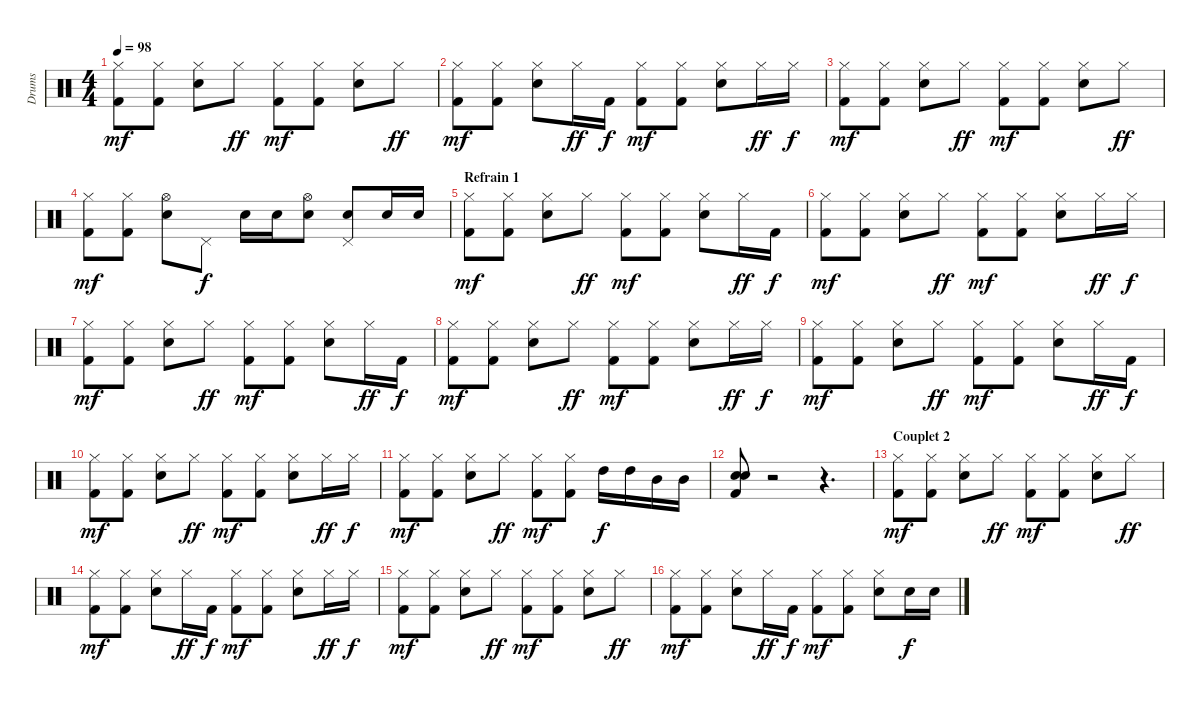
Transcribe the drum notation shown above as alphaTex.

\track ("Drums" "Drums") {instrument percussion}
\staff {score}
\articulation defaults
\ts (4 4)
\tempo 98
\clef neutral
\ks c
("Hi-Hat (closed)" "Kick (hit) 2").8{dy mf} ("Hi-Hat (closed)" "Kick (hit) 2").8 ("Hi-Hat (closed)" "Snare (hit) 2").8 "Hi-Hat (closed)".8{dy ff} ("Hi-Hat (closed)" "Kick (hit) 2").8{dy mf} ("Hi-Hat (closed)" "Kick (hit) 2").8 ("Hi-Hat (closed)" "Snare (hit) 2").8 "Hi-Hat (closed)".8{dy ff} |
("Hi-Hat (closed)" "Kick (hit) 2").8{dy mf} ("Hi-Hat (closed)" "Kick (hit) 2").8 ("Hi-Hat (closed)" "Snare (hit) 2").8 "Hi-Hat (closed)".16{dy ff} "Kick (hit) 2".16{dy f} ("Hi-Hat (closed)" "Kick (hit) 2").8{dy mf} ("Hi-Hat (closed)" "Kick (hit) 2").8 ("Hi-Hat (closed)" "Snare (hit) 2").8 "Hi-Hat (closed)".16{dy ff} "Hi-Hat (closed)".16{dy f} |
("Hi-Hat (closed)" "Kick (hit) 2").8{dy mf} ("Hi-Hat (closed)" "Kick (hit) 2").8 ("Hi-Hat (closed)" "Snare (hit) 2").8 "Hi-Hat (closed)".8{dy ff} ("Hi-Hat (closed)" "Kick (hit) 2").8{dy mf} ("Hi-Hat (closed)" "Kick (hit) 2").8 ("Hi-Hat (closed)" "Snare (hit) 2").8 "Hi-Hat (closed)".8{dy ff} |
("Hi-Hat (closed)" "Kick (hit) 2").8{dy mf} ("Hi-Hat (closed)" "Kick (hit) 2").8 ("Hi-Hat (open)" "Snare (hit) 2").8 "Pedal Hi-Hat (hit)".8{dy f} "Snare (hit) 2".16 "Snare (hit) 2".16 ("Hi-Hat (open)" "Snare (hit) 2").8 ("Snare (hit) 2" "Pedal Hi-Hat (hit)").8 "Snare (hit) 2".16 "Snare (hit) 2".16 |
\section ("" "Refrain 1")
("Hi-Hat (closed)" "Kick (hit) 2").8{dy mf} ("Hi-Hat (closed)" "Kick (hit) 2").8 ("Hi-Hat (closed)" "Snare (hit) 2").8 "Hi-Hat (closed)".8{dy ff} ("Hi-Hat (closed)" "Kick (hit) 2").8{dy mf} ("Hi-Hat (closed)" "Kick (hit) 2").8 ("Hi-Hat (closed)" "Snare (hit) 2").8 "Hi-Hat (closed)".16{dy ff} "Kick (hit) 2".16{dy f} |
("Hi-Hat (closed)" "Kick (hit) 2").8{dy mf} ("Hi-Hat (closed)" "Kick (hit) 2").8 ("Hi-Hat (closed)" "Snare (hit) 2").8 "Hi-Hat (closed)".8{dy ff} ("Hi-Hat (closed)" "Kick (hit) 2").8{dy mf} ("Hi-Hat (closed)" "Kick (hit) 2").8 ("Hi-Hat (closed)" "Snare (hit) 2").8 "Hi-Hat (closed)".16{dy ff} "Hi-Hat (closed)".16{dy f} |
("Hi-Hat (closed)" "Kick (hit) 2").8{dy mf} ("Hi-Hat (closed)" "Kick (hit) 2").8 ("Hi-Hat (closed)" "Snare (hit) 2").8 "Hi-Hat (closed)".8{dy ff} ("Hi-Hat (closed)" "Kick (hit) 2").8{dy mf} ("Hi-Hat (closed)" "Kick (hit) 2").8 ("Hi-Hat (closed)" "Snare (hit) 2").8 "Hi-Hat (closed)".16{dy ff} "Kick (hit) 2".16{dy f} |
("Hi-Hat (closed)" "Kick (hit) 2").8{dy mf} ("Hi-Hat (closed)" "Kick (hit) 2").8 ("Hi-Hat (closed)" "Snare (hit) 2").8 "Hi-Hat (closed)".8{dy ff} ("Hi-Hat (closed)" "Kick (hit) 2").8{dy mf} ("Hi-Hat (closed)" "Kick (hit) 2").8 ("Hi-Hat (closed)" "Snare (hit) 2").8 "Hi-Hat (closed)".16{dy ff} "Hi-Hat (closed)".16{dy f} |
("Hi-Hat (closed)" "Kick (hit) 2").8{dy mf} ("Hi-Hat (closed)" "Kick (hit) 2").8 ("Hi-Hat (closed)" "Snare (hit) 2").8 "Hi-Hat (closed)".8{dy ff} ("Hi-Hat (closed)" "Kick (hit) 2").8{dy mf} ("Hi-Hat (closed)" "Kick (hit) 2").8 ("Hi-Hat (closed)" "Snare (hit) 2").8 "Hi-Hat (closed)".16{dy ff} "Kick (hit) 2".16{dy f} |
("Hi-Hat (closed)" "Kick (hit) 2").8{dy mf} ("Hi-Hat (closed)" "Kick (hit) 2").8 ("Hi-Hat (closed)" "Snare (hit) 2").8 "Hi-Hat (closed)".8{dy ff} ("Hi-Hat (closed)" "Kick (hit) 2").8{dy mf} ("Hi-Hat (closed)" "Kick (hit) 2").8 ("Hi-Hat (closed)" "Snare (hit) 2").8 "Hi-Hat (closed)".16{dy ff} "Hi-Hat (closed)".16{dy f} |
("Hi-Hat (closed)" "Kick (hit) 2").8{dy mf} ("Hi-Hat (closed)" "Kick (hit) 2").8 ("Hi-Hat (closed)" "Snare (hit) 2").8 "Hi-Hat (closed)".8{dy ff} ("Hi-Hat (closed)" "Kick (hit) 2").8{dy mf} ("Hi-Hat (closed)" "Kick (hit) 2").8 "High Tom (hit)".16{dy f} "High Tom (hit)".16 "Mid Tom (hit)".16 "Mid Tom (hit)".16 |
("Snare (hit) 2" "Snare (hit) 2" "Kick (hit) 2").8 r.2 r.4{d} |
\section ("" "Couplet 2")
("Hi-Hat (closed)" "Kick (hit) 2").8{dy mf} ("Hi-Hat (closed)" "Kick (hit) 2").8 ("Hi-Hat (closed)" "Snare (hit) 2").8 "Hi-Hat (closed)".8{dy ff} ("Hi-Hat (closed)" "Kick (hit) 2").8{dy mf} ("Hi-Hat (closed)" "Kick (hit) 2").8 ("Hi-Hat (closed)" "Snare (hit) 2").8 "Hi-Hat (closed)".8{dy ff} |
("Hi-Hat (closed)" "Kick (hit) 2").8{dy mf} ("Hi-Hat (closed)" "Kick (hit) 2").8 ("Hi-Hat (closed)" "Snare (hit) 2").8 "Hi-Hat (closed)".16{dy ff} "Kick (hit) 2".16{dy f} ("Hi-Hat (closed)" "Kick (hit) 2").8{dy mf} ("Hi-Hat (closed)" "Kick (hit) 2").8 ("Hi-Hat (closed)" "Snare (hit) 2").8 "Hi-Hat (closed)".16{dy ff} "Hi-Hat (closed)".16{dy f} |
("Hi-Hat (closed)" "Kick (hit) 2").8{dy mf} ("Hi-Hat (closed)" "Kick (hit) 2").8 ("Hi-Hat (closed)" "Snare (hit) 2").8 "Hi-Hat (closed)".8{dy ff} ("Hi-Hat (closed)" "Kick (hit) 2").8{dy mf} ("Hi-Hat (closed)" "Kick (hit) 2").8 ("Hi-Hat (closed)" "Snare (hit) 2").8 "Hi-Hat (closed)".8{dy ff} |
("Hi-Hat (closed)" "Kick (hit) 2").8{dy mf} ("Hi-Hat (closed)" "Kick (hit) 2").8 ("Hi-Hat (closed)" "Snare (hit) 2").8 "Hi-Hat (closed)".16{dy ff} "Kick (hit) 2".16{dy f} ("Hi-Hat (closed)" "Kick (hit) 2").8{dy mf} ("Hi-Hat (closed)" "Kick (hit) 2").8 ("Hi-Hat (closed)" "Snare (hit) 2").8 "Snare (hit) 2".16{dy f} "Snare (hit) 2".16
